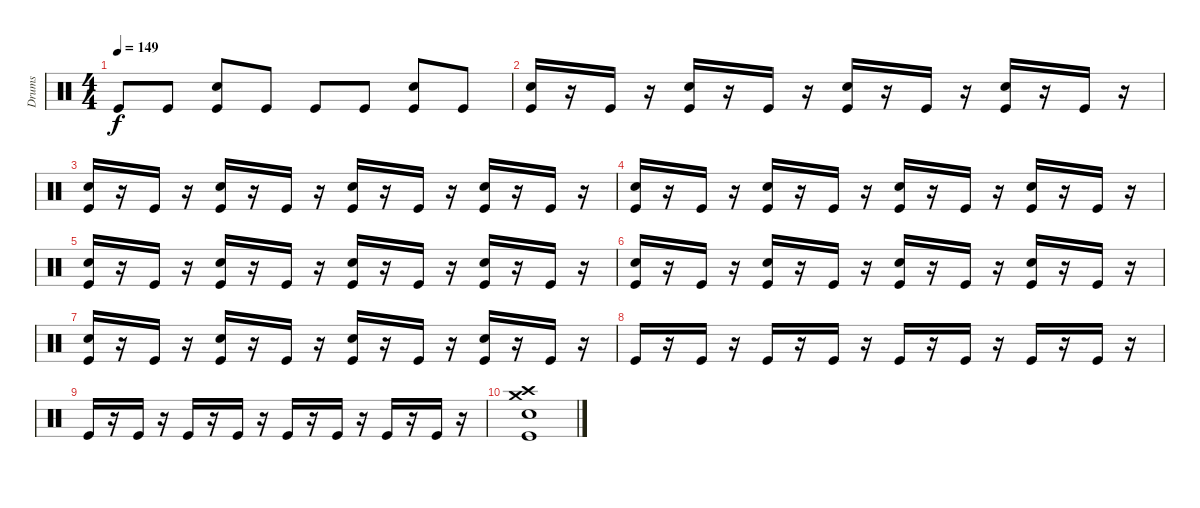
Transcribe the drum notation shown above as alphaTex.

\track ("Drums" "Drums") {instrument percussion}
\staff {score}
\articulation defaults
\ts (4 4)
\tempo 149
\clef neutral
\ks c "Kick (hit)".8{dy f} "Kick (hit)".8
("Snare (hit) 2" "Kick (hit)").8 "Kick (hit)".8 "Kick (hit)".8 "Kick (hit)".8 ("Snare (hit) 2" "Kick (hit)").8 "Kick (hit)".8 |
("Snare (hit) 2" "Kick (hit)").16 r.16 "Kick (hit)".16 r.16 ("Snare (hit) 2" "Kick (hit)").16 r.16 "Kick (hit)".16 r.16 ("Snare (hit) 2" "Kick (hit)").16 r.16 "Kick (hit)".16 r.16 ("Snare (hit) 2" "Kick (hit)").16 r.16 "Kick (hit)".16 r.16 |
("Snare (hit) 2" "Kick (hit)").16 r.16 "Kick (hit)".16 r.16 ("Snare (hit) 2" "Kick (hit)").16 r.16 "Kick (hit)".16 r.16 ("Snare (hit) 2" "Kick (hit)").16 r.16 "Kick (hit)".16 r.16 ("Snare (hit) 2" "Kick (hit)").16 r.16 "Kick (hit)".16 r.16 |
("Snare (hit) 2" "Kick (hit)").16 r.16 "Kick (hit)".16 r.16 ("Snare (hit) 2" "Kick (hit)").16 r.16 "Kick (hit)".16 r.16 ("Snare (hit) 2" "Kick (hit)").16 r.16 "Kick (hit)".16 r.16 ("Snare (hit) 2" "Kick (hit)").16 r.16 "Kick (hit)".16 r.16 |
("Snare (hit) 2" "Kick (hit)").16 r.16 "Kick (hit)".16 r.16 ("Snare (hit) 2" "Kick (hit)").16 r.16 "Kick (hit)".16 r.16 ("Snare (hit) 2" "Kick (hit)").16 r.16 "Kick (hit)".16 r.16 ("Snare (hit) 2" "Kick (hit)").16 r.16 "Kick (hit)".16 r.16 |
("Snare (hit) 2" "Kick (hit)").16 r.16 "Kick (hit)".16 r.16 ("Snare (hit) 2" "Kick (hit)").16 r.16 "Kick (hit)".16 r.16 ("Snare (hit) 2" "Kick (hit)").16 r.16 "Kick (hit)".16 r.16 ("Snare (hit) 2" "Kick (hit)").16 r.16 "Kick (hit)".16 r.16 |
("Snare (hit) 2" "Kick (hit)").16 r.16 "Kick (hit)".16 r.16 ("Snare (hit) 2" "Kick (hit)").16 r.16 "Kick (hit)".16 r.16 ("Snare (hit) 2" "Kick (hit)").16 r.16 "Kick (hit)".16 r.16 ("Snare (hit) 2" "Kick (hit)").16 r.16 "Kick (hit)".16 r.16 |
"Kick (hit)".16 r.16 "Kick (hit)".16 r.16 "Kick (hit)".16 r.16 "Kick (hit)".16 r.16 "Kick (hit)".16 r.16 "Kick (hit)".16 r.16 "Kick (hit)".16 r.16 "Kick (hit)".16 r.16 |
"Kick (hit)".16 r.16 "Kick (hit)".16 r.16 "Kick (hit)".16 r.16 "Kick (hit)".16 r.16 "Kick (hit)".16 r.16 "Kick (hit)".16 r.16 "Kick (hit)".16 r.16 "Kick (hit)".16 r.16 |
("Crash medium (hit)" "Snare (hit) 2" "Crash high (hit)" "Kick (hit)").1
